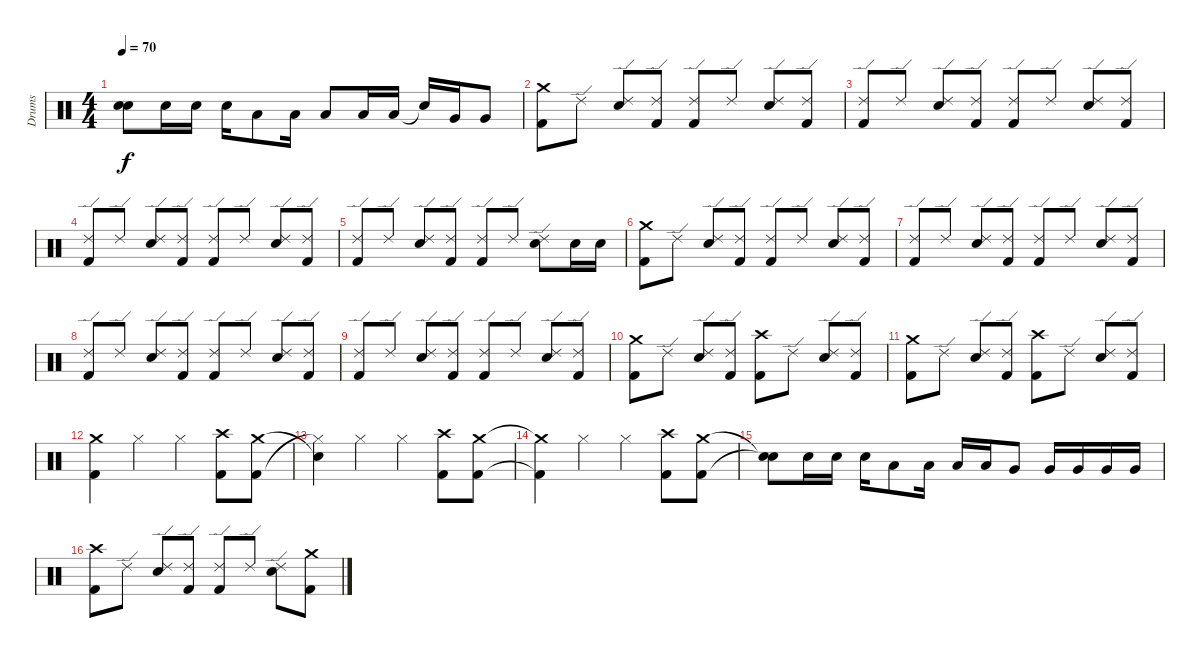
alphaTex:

\track ("Drums" "Drums") {instrument percussion}
\staff {score}
\articulation defaults
\ts (4 4)
\tempo 70
\clef neutral
\ks c
("Snare (hit)"{t} "Snare (hit)"{t}).8{dy f} "Electric Snare (hit)".16 "Electric Snare (hit)".16 "Electric Snare (hit)".16 "Low Tom (hit)".8 "Low Tom (hit)".16 "Low Tom (hit)".8 "Low Tom (hit)".16 "Low Tom (hit)".16 "Snare (hit)"{t}.16 "Very Low Tom (hit)".16 "Very Low Tom (hit)".8 |
("Crash medium (hit)" "Kick (hit) 2").8 "Ride (edge) 2".8 ("Ride (edge) 2" "Electric Snare (hit)").8 ("Ride (edge) 2" "Kick (hit) 2").8 ("Ride (edge) 2" "Kick (hit) 2").8 "Ride (edge) 2".8 ("Ride (edge) 2" "Electric Snare (hit)").8 ("Ride (edge) 2" "Kick (hit) 2").8 |
("Ride (edge) 2" "Kick (hit) 2").8 "Ride (edge) 2".8 ("Ride (edge) 2" "Electric Snare (hit)").8 ("Ride (edge) 2" "Kick (hit) 2").8 ("Ride (edge) 2" "Kick (hit) 2").8 "Ride (edge) 2".8 ("Ride (edge) 2" "Electric Snare (hit)").8 ("Ride (edge) 2" "Kick (hit) 2").8 |
("Ride (edge) 2" "Kick (hit) 2").8 "Ride (edge) 2".8 ("Ride (edge) 2" "Electric Snare (hit)").8 ("Ride (edge) 2" "Kick (hit) 2").8 ("Ride (edge) 2" "Kick (hit) 2").8 "Ride (edge) 2".8 ("Ride (edge) 2" "Electric Snare (hit)").8 ("Ride (edge) 2" "Kick (hit) 2").8 |
("Ride (edge) 2" "Kick (hit) 2").8 "Ride (edge) 2".8 ("Ride (edge) 2" "Electric Snare (hit)").8 ("Ride (edge) 2" "Kick (hit) 2").8 ("Ride (edge) 2" "Kick (hit) 2").8 "Ride (edge) 2".8 ("Ride (edge) 2" "Electric Snare (hit)").8 "Electric Snare (hit)".16 "Electric Snare (hit)".16 |
("Crash medium (hit)" "Kick (hit) 2").8 "Ride (edge) 2".8 ("Ride (edge) 2" "Electric Snare (hit)").8 ("Ride (edge) 2" "Kick (hit) 2").8 ("Ride (edge) 2" "Kick (hit) 2").8 "Ride (edge) 2".8 ("Ride (edge) 2" "Electric Snare (hit)").8 ("Ride (edge) 2" "Kick (hit) 2").8 |
("Ride (edge) 2" "Kick (hit) 2").8 "Ride (edge) 2".8 ("Ride (edge) 2" "Electric Snare (hit)").8 ("Ride (edge) 2" "Kick (hit) 2").8 ("Ride (edge) 2" "Kick (hit) 2").8 "Ride (edge) 2".8 ("Ride (edge) 2" "Electric Snare (hit)").8 ("Ride (edge) 2" "Kick (hit) 2").8 |
("Ride (edge) 2" "Kick (hit) 2").8 "Ride (edge) 2".8 ("Ride (edge) 2" "Electric Snare (hit)").8 ("Ride (edge) 2" "Kick (hit) 2").8 ("Ride (edge) 2" "Kick (hit) 2").8 "Ride (edge) 2".8 ("Ride (edge) 2" "Electric Snare (hit)").8 ("Ride (edge) 2" "Kick (hit) 2").8 |
("Ride (edge) 2" "Kick (hit) 2").8 "Ride (edge) 2".8 ("Ride (edge) 2" "Electric Snare (hit)").8 ("Ride (edge) 2" "Kick (hit) 2").8 ("Ride (edge) 2" "Kick (hit) 2").8 "Ride (edge) 2".8 ("Ride (edge) 2" "Electric Snare (hit)").8 ("Ride (edge) 2" "Kick (hit) 2").8 |
("Crash medium (hit)" "Kick (hit) 2").8 "Ride (edge) 2".8 ("Ride (edge) 2" "Electric Snare (hit)").8 ("Ride (edge) 2" "Kick (hit) 2").8 ("Crash high (hit)" "Kick (hit) 2").8 "Ride (edge) 2".8 ("Ride (edge) 2" "Electric Snare (hit)").8 ("Ride (edge) 2" "Kick (hit) 2").8 |
("Crash medium (hit)" "Kick (hit) 2").8 "Ride (edge) 2".8 ("Ride (edge) 2" "Electric Snare (hit)").8 ("Ride (edge) 2" "Kick (hit) 2").8 ("Crash high (hit)" "Kick (hit) 2").8 "Ride (edge) 2".8 ("Ride (edge) 2" "Electric Snare (hit)").8 ("Ride (edge) 2" "Kick (hit) 2").8 |
("Crash medium (hit)" "Kick (hit) 2").4 "Hi-Hat (closed)".4 "Hi-Hat (closed)".4 ("Crash high (hit)" "Kick (hit) 2").8 ("Crash medium (hit)" "Kick (hit) 2").8 |
("Snare (hit)"{t} "Hi-Hat (closed)"{t}).4 "Hi-Hat (closed)".4 "Hi-Hat (closed)".4 ("Crash high (hit)" "Kick (hit) 2").8 ("Crash medium (hit)" "Kick (hit) 2").8 |
("Crash medium (hit)"{t} "Kick (hit) 2"{t}).4 "Hi-Hat (closed)".4 "Hi-Hat (closed)".4 ("Crash high (hit)" "Kick (hit) 2").8 ("Crash medium (hit)" "Kick (hit) 2").8 |
("Snare (hit)"{t} "Snare (hit)"{t}).8 "Electric Snare (hit)".16 "Electric Snare (hit)".16 "Electric Snare (hit)".16 "Low Tom (hit)".8 "Low Tom (hit)".16 "Low Tom (hit)".16 "Low Tom (hit)".16 "Very Low Tom (hit)".8 "Very Low Tom (hit)".16 "Very Low Tom (hit)".16 "Very Low Tom (hit)".16 "Very Low Tom (hit)".16 |
("Crash high (hit)" "Kick (hit) 2").8 "Ride (edge) 2".8 ("Ride (edge) 2" "Electric Snare (hit)").8 ("Ride (edge) 2" "Kick (hit) 2").8 ("Kick (hit) 2" "Ride (edge) 2").8 "Ride (edge) 2".8 ("Electric Snare (hit)" "Ride (edge) 2").8 ("Crash medium (hit)" "Kick (hit) 2").8
